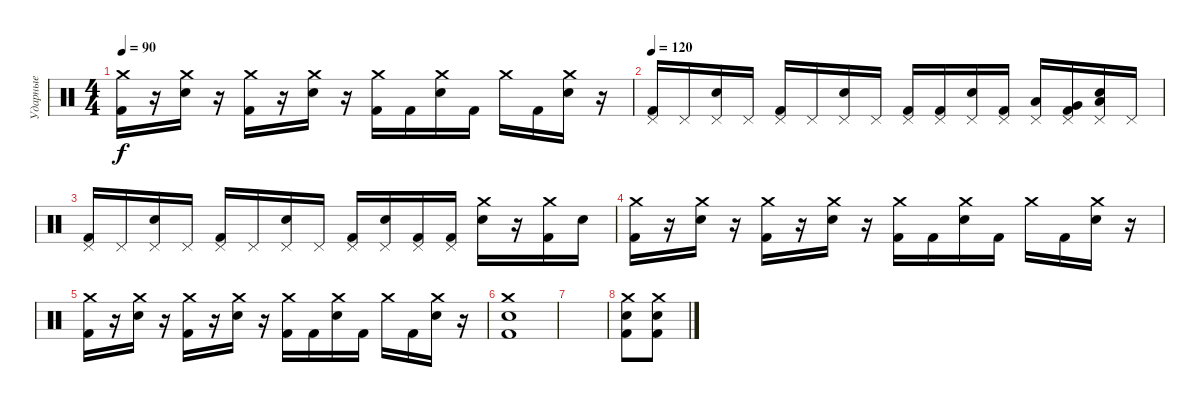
\track ("Ударные" "Ударные") {instrument percussion}
\staff {score}
\articulation defaults
\ts (4 4)
\tempo 90
\clef neutral
\ks c
("Crash medium (hit)" "Kick (hit) 2").16{dy f} r.16 ("Crash medium (hit)" "Electric Snare (hit)").16 r.16 ("Crash medium (hit)" "Kick (hit) 2").16 r.16 ("Crash medium (hit)" "Electric Snare (hit)").16 r.16 ("Crash medium (hit)" "Kick (hit) 2").16 "Kick (hit) 2".16 ("Crash medium (hit)" "Electric Snare (hit)").16 "Kick (hit) 2".16 "Crash medium (hit)".16 "Kick (hit) 2".16 ("Crash medium (hit)" "Electric Snare (hit)").16 r.16 |
\tempo 120
("Pedal Hi-Hat (hit)" "Kick (hit) 2").16 "Pedal Hi-Hat (hit)".16 ("Pedal Hi-Hat (hit)" "Electric Snare (hit)").16 "Pedal Hi-Hat (hit)".16 ("Pedal Hi-Hat (hit)" "Kick (hit) 2").16 "Pedal Hi-Hat (hit)".16 ("Pedal Hi-Hat (hit)" "Electric Snare (hit)").16 "Pedal Hi-Hat (hit)".16 ("Pedal Hi-Hat (hit)" "Kick (hit) 2").16 ("Pedal Hi-Hat (hit)" "Kick (hit) 2").16 ("Pedal Hi-Hat (hit)" "Electric Snare (hit)").16 ("Pedal Hi-Hat (hit)" "Kick (hit) 2").16 ("Pedal Hi-Hat (hit)" "Low Floor Tom (hit)").16 ("Pedal Hi-Hat (hit)" "Very Low Tom (hit)" "Kick (hit) 2").16 ("Pedal Hi-Hat (hit)" "Low Tom (hit)" "Electric Snare (hit)").16 "Pedal Hi-Hat (hit)".16 |
("Pedal Hi-Hat (hit)" "Kick (hit) 2").16 "Pedal Hi-Hat (hit)".16 ("Pedal Hi-Hat (hit)" "Electric Snare (hit)").16 "Pedal Hi-Hat (hit)".16 ("Pedal Hi-Hat (hit)" "Kick (hit) 2").16 "Pedal Hi-Hat (hit)".16 ("Pedal Hi-Hat (hit)" "Electric Snare (hit)").16 "Pedal Hi-Hat (hit)".16 ("Pedal Hi-Hat (hit)" "Kick (hit) 2").16 ("Pedal Hi-Hat (hit)" "Electric Snare (hit)").16 ("Pedal Hi-Hat (hit)" "Kick (hit) 2").16 ("Pedal Hi-Hat (hit)" "Kick (hit) 2").16 ("Crash medium (hit)" "Electric Snare (hit)").16 r.16 ("Crash medium (hit)" "Kick (hit) 2").16 "Electric Snare (hit)".16 |
("Crash medium (hit)" "Kick (hit) 2").16 r.16 ("Crash medium (hit)" "Electric Snare (hit)").16 r.16 ("Crash medium (hit)" "Kick (hit) 2").16 r.16 ("Crash medium (hit)" "Electric Snare (hit)").16 r.16 ("Crash medium (hit)" "Kick (hit) 2").16 "Kick (hit) 2".16 ("Crash medium (hit)" "Electric Snare (hit)").16 "Kick (hit) 2".16 "Crash medium (hit)".16 "Kick (hit) 2".16 ("Crash medium (hit)" "Electric Snare (hit)").16 r.16 |
("Crash medium (hit)" "Kick (hit) 2").16 r.16 ("Crash medium (hit)" "Electric Snare (hit)").16 r.16 ("Crash medium (hit)" "Kick (hit) 2").16 r.16 ("Crash medium (hit)" "Electric Snare (hit)").16 r.16 ("Crash medium (hit)" "Kick (hit) 2").16 "Kick (hit) 2".16 ("Crash medium (hit)" "Electric Snare (hit)").16 "Kick (hit) 2".16 "Crash medium (hit)".16 "Kick (hit) 2".16 ("Crash medium (hit)" "Electric Snare (hit)").16 r.16 |
("Crash medium (hit)" "Electric Snare (hit)" "Kick (hit) 2").1 |
|
("Crash medium (hit)" "Electric Snare (hit)" "Kick (hit) 2").8 ("Crash medium (hit)" "Electric Snare (hit)" "Kick (hit) 2").8
